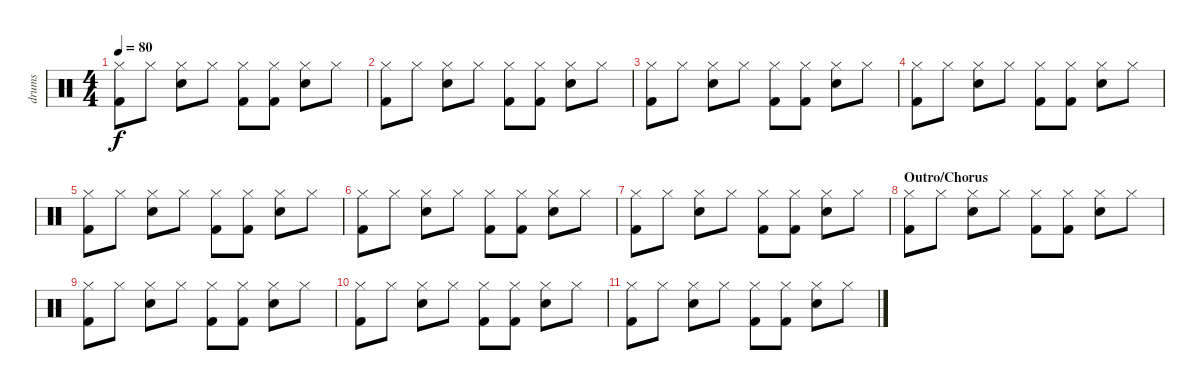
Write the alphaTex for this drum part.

\track ("drums" "drums") {instrument percussion}
\staff {score}
\articulation defaults
\ts (4 4)
\tempo 80
\clef neutral
\ks c
("Hi-Hat (closed)" "Kick (hit) 2").8{dy f} "Hi-Hat (closed)".8 ("Hi-Hat (closed)" "Electric Snare (hit)").8 "Hi-Hat (closed)".8 ("Hi-Hat (closed)" "Kick (hit) 2").8 ("Hi-Hat (closed)" "Kick (hit) 2").8 ("Hi-Hat (closed)" "Electric Snare (hit)").8 "Hi-Hat (closed)".8 |
("Hi-Hat (closed)" "Kick (hit) 2").8 "Hi-Hat (closed)".8 ("Hi-Hat (closed)" "Electric Snare (hit)").8 "Hi-Hat (closed)".8 ("Hi-Hat (closed)" "Kick (hit) 2").8 ("Hi-Hat (closed)" "Kick (hit) 2").8 ("Hi-Hat (closed)" "Electric Snare (hit)").8 "Hi-Hat (closed)".8 |
("Hi-Hat (closed)" "Kick (hit) 2").8 "Hi-Hat (closed)".8 ("Hi-Hat (closed)" "Electric Snare (hit)").8 "Hi-Hat (closed)".8 ("Hi-Hat (closed)" "Kick (hit) 2").8 ("Hi-Hat (closed)" "Kick (hit) 2").8 ("Hi-Hat (closed)" "Electric Snare (hit)").8 "Hi-Hat (closed)".8 |
("Hi-Hat (closed)" "Kick (hit) 2").8 "Hi-Hat (closed)".8 ("Hi-Hat (closed)" "Electric Snare (hit)").8 "Hi-Hat (closed)".8 ("Hi-Hat (closed)" "Kick (hit) 2").8 ("Hi-Hat (closed)" "Kick (hit) 2").8 ("Hi-Hat (closed)" "Electric Snare (hit)").8 "Hi-Hat (closed)".8 |
("Hi-Hat (closed)" "Kick (hit) 2").8 "Hi-Hat (closed)".8 ("Hi-Hat (closed)" "Electric Snare (hit)").8 "Hi-Hat (closed)".8 ("Hi-Hat (closed)" "Kick (hit) 2").8 ("Hi-Hat (closed)" "Kick (hit) 2").8 ("Hi-Hat (closed)" "Electric Snare (hit)").8 "Hi-Hat (closed)".8 |
("Hi-Hat (closed)" "Kick (hit) 2").8 "Hi-Hat (closed)".8 ("Hi-Hat (closed)" "Electric Snare (hit)").8 "Hi-Hat (closed)".8 ("Hi-Hat (closed)" "Kick (hit) 2").8 ("Hi-Hat (closed)" "Kick (hit) 2").8 ("Hi-Hat (closed)" "Electric Snare (hit)").8 "Hi-Hat (closed)".8 |
("Hi-Hat (closed)" "Kick (hit) 2").8 "Hi-Hat (closed)".8 ("Hi-Hat (closed)" "Electric Snare (hit)").8 "Hi-Hat (closed)".8 ("Hi-Hat (closed)" "Kick (hit) 2").8 ("Hi-Hat (closed)" "Kick (hit) 2").8 ("Hi-Hat (closed)" "Electric Snare (hit)").8 "Hi-Hat (closed)".8 |
\section ("" "Outro/Chorus")
("Hi-Hat (closed)" "Kick (hit) 2").8 "Hi-Hat (closed)".8 ("Hi-Hat (closed)" "Electric Snare (hit)").8 "Hi-Hat (closed)".8 ("Hi-Hat (closed)" "Kick (hit) 2").8 ("Hi-Hat (closed)" "Kick (hit) 2").8 ("Hi-Hat (closed)" "Electric Snare (hit)").8 "Hi-Hat (closed)".8 |
("Hi-Hat (closed)" "Kick (hit) 2").8 "Hi-Hat (closed)".8 ("Hi-Hat (closed)" "Electric Snare (hit)").8 "Hi-Hat (closed)".8 ("Hi-Hat (closed)" "Kick (hit) 2").8 ("Hi-Hat (closed)" "Kick (hit) 2").8 ("Hi-Hat (closed)" "Electric Snare (hit)").8 "Hi-Hat (closed)".8 |
("Hi-Hat (closed)" "Kick (hit) 2").8 "Hi-Hat (closed)".8 ("Hi-Hat (closed)" "Electric Snare (hit)").8 "Hi-Hat (closed)".8 ("Hi-Hat (closed)" "Kick (hit) 2").8 ("Hi-Hat (closed)" "Kick (hit) 2").8 ("Hi-Hat (closed)" "Electric Snare (hit)").8 "Hi-Hat (closed)".8 |
("Hi-Hat (closed)" "Kick (hit) 2").8 "Hi-Hat (closed)".8 ("Hi-Hat (closed)" "Electric Snare (hit)").8 "Hi-Hat (closed)".8 ("Hi-Hat (closed)" "Kick (hit) 2").8 ("Hi-Hat (closed)" "Kick (hit) 2").8 ("Hi-Hat (closed)" "Electric Snare (hit)").8 "Hi-Hat (closed)".8
